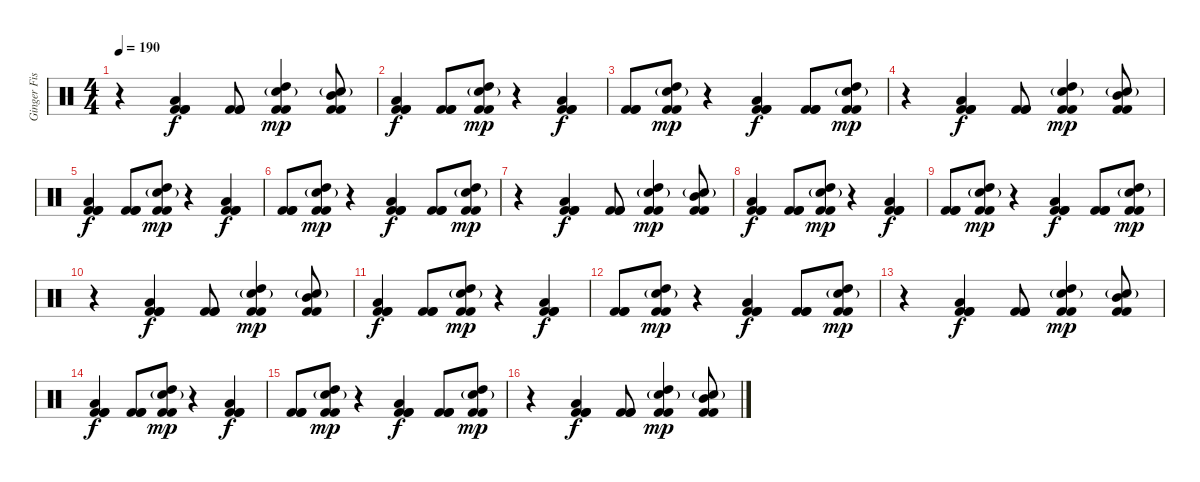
\track ("Ginger Fish" "Ginger Fis") {instrument percussion}
\staff {score}
\articulation defaults
\ts (4 4)
\tempo 190
\clef neutral
\ks c
r.4{dy mp} ("Low Tom (hit)" "Kick (hit) 2" "Kick (hit) 2" "Kick (hit) 2").4{dy f} ("Kick (hit) 2" "Kick (hit) 2" "Kick (hit) 2").8 ("High Tom (hit)" "Electric Snare (hit)"{g} "Kick (hit) 2" "Kick (hit) 2").4{dy mp} ("Mid Tom (hit)" "Electric Snare (hit)"{g} "Kick (hit) 2" "Kick (hit) 2").8 |
("Low Tom (hit)" "Kick (hit) 2" "Kick (hit) 2" "Kick (hit) 2").4{dy f} ("Kick (hit) 2" "Kick (hit) 2" "Kick (hit) 2").8 ("High Tom (hit)" "Electric Snare (hit)"{g} "Kick (hit) 2" "Kick (hit) 2").8{dy mp} r.4 ("Low Tom (hit)" "Kick (hit) 2" "Kick (hit) 2" "Kick (hit) 2").4{dy f} |
("Kick (hit) 2" "Kick (hit) 2" "Kick (hit) 2").8 ("High Tom (hit)" "Electric Snare (hit)"{g} "Kick (hit) 2" "Kick (hit) 2").8{dy mp} r.4 ("Low Tom (hit)" "Kick (hit) 2" "Kick (hit) 2" "Kick (hit) 2").4{dy f} ("Kick (hit) 2" "Kick (hit) 2" "Kick (hit) 2").8 ("High Tom (hit)" "Electric Snare (hit)"{g} "Kick (hit) 2" "Kick (hit) 2").8{dy mp} |
r.4 ("Low Tom (hit)" "Kick (hit) 2" "Kick (hit) 2" "Kick (hit) 2").4{dy f} ("Kick (hit) 2" "Kick (hit) 2" "Kick (hit) 2").8 ("High Tom (hit)" "Electric Snare (hit)"{g} "Kick (hit) 2" "Kick (hit) 2").4{dy mp} ("Mid Tom (hit)" "Electric Snare (hit)"{g} "Kick (hit) 2" "Kick (hit) 2").8 |
("Low Tom (hit)" "Kick (hit) 2" "Kick (hit) 2" "Kick (hit) 2").4{dy f} ("Kick (hit) 2" "Kick (hit) 2" "Kick (hit) 2").8 ("High Tom (hit)" "Electric Snare (hit)"{g} "Kick (hit) 2" "Kick (hit) 2").8{dy mp} r.4 ("Low Tom (hit)" "Kick (hit) 2" "Kick (hit) 2" "Kick (hit) 2").4{dy f} |
("Kick (hit) 2" "Kick (hit) 2" "Kick (hit) 2").8 ("High Tom (hit)" "Electric Snare (hit)"{g} "Kick (hit) 2" "Kick (hit) 2").8{dy mp} r.4 ("Low Tom (hit)" "Kick (hit) 2" "Kick (hit) 2" "Kick (hit) 2").4{dy f} ("Kick (hit) 2" "Kick (hit) 2" "Kick (hit) 2").8 ("High Tom (hit)" "Electric Snare (hit)"{g} "Kick (hit) 2" "Kick (hit) 2").8{dy mp} |
r.4 ("Low Tom (hit)" "Kick (hit) 2" "Kick (hit) 2" "Kick (hit) 2").4{dy f} ("Kick (hit) 2" "Kick (hit) 2" "Kick (hit) 2").8 ("High Tom (hit)" "Electric Snare (hit)"{g} "Kick (hit) 2" "Kick (hit) 2").4{dy mp} ("Mid Tom (hit)" "Electric Snare (hit)"{g} "Kick (hit) 2" "Kick (hit) 2").8 |
("Low Tom (hit)" "Kick (hit) 2" "Kick (hit) 2" "Kick (hit) 2").4{dy f} ("Kick (hit) 2" "Kick (hit) 2" "Kick (hit) 2").8 ("High Tom (hit)" "Electric Snare (hit)"{g} "Kick (hit) 2" "Kick (hit) 2").8{dy mp} r.4 ("Low Tom (hit)" "Kick (hit) 2" "Kick (hit) 2" "Kick (hit) 2").4{dy f} |
("Kick (hit) 2" "Kick (hit) 2" "Kick (hit) 2").8 ("High Tom (hit)" "Electric Snare (hit)"{g} "Kick (hit) 2" "Kick (hit) 2").8{dy mp} r.4 ("Low Tom (hit)" "Kick (hit) 2" "Kick (hit) 2" "Kick (hit) 2").4{dy f} ("Kick (hit) 2" "Kick (hit) 2" "Kick (hit) 2").8 ("High Tom (hit)" "Electric Snare (hit)"{g} "Kick (hit) 2" "Kick (hit) 2").8{dy mp} |
r.4 ("Low Tom (hit)" "Kick (hit) 2" "Kick (hit) 2" "Kick (hit) 2").4{dy f} ("Kick (hit) 2" "Kick (hit) 2" "Kick (hit) 2").8 ("High Tom (hit)" "Electric Snare (hit)"{g} "Kick (hit) 2" "Kick (hit) 2").4{dy mp} ("Mid Tom (hit)" "Electric Snare (hit)"{g} "Kick (hit) 2" "Kick (hit) 2").8 |
("Low Tom (hit)" "Kick (hit) 2" "Kick (hit) 2" "Kick (hit) 2").4{dy f} ("Kick (hit) 2" "Kick (hit) 2" "Kick (hit) 2").8 ("High Tom (hit)" "Electric Snare (hit)"{g} "Kick (hit) 2" "Kick (hit) 2").8{dy mp} r.4 ("Low Tom (hit)" "Kick (hit) 2" "Kick (hit) 2" "Kick (hit) 2").4{dy f} |
("Kick (hit) 2" "Kick (hit) 2" "Kick (hit) 2").8 ("High Tom (hit)" "Electric Snare (hit)"{g} "Kick (hit) 2" "Kick (hit) 2").8{dy mp} r.4 ("Low Tom (hit)" "Kick (hit) 2" "Kick (hit) 2" "Kick (hit) 2").4{dy f} ("Kick (hit) 2" "Kick (hit) 2" "Kick (hit) 2").8 ("High Tom (hit)" "Electric Snare (hit)"{g} "Kick (hit) 2" "Kick (hit) 2").8{dy mp} |
r.4 ("Low Tom (hit)" "Kick (hit) 2" "Kick (hit) 2" "Kick (hit) 2").4{dy f} ("Kick (hit) 2" "Kick (hit) 2" "Kick (hit) 2").8 ("High Tom (hit)" "Electric Snare (hit)"{g} "Kick (hit) 2" "Kick (hit) 2").4{dy mp} ("Mid Tom (hit)" "Electric Snare (hit)"{g} "Kick (hit) 2" "Kick (hit) 2").8 |
("Low Tom (hit)" "Kick (hit) 2" "Kick (hit) 2" "Kick (hit) 2").4{dy f} ("Kick (hit) 2" "Kick (hit) 2" "Kick (hit) 2").8 ("High Tom (hit)" "Electric Snare (hit)"{g} "Kick (hit) 2" "Kick (hit) 2").8{dy mp} r.4 ("Low Tom (hit)" "Kick (hit) 2" "Kick (hit) 2" "Kick (hit) 2").4{dy f} |
("Kick (hit) 2" "Kick (hit) 2" "Kick (hit) 2").8 ("High Tom (hit)" "Electric Snare (hit)"{g} "Kick (hit) 2" "Kick (hit) 2").8{dy mp} r.4 ("Low Tom (hit)" "Kick (hit) 2" "Kick (hit) 2" "Kick (hit) 2").4{dy f} ("Kick (hit) 2" "Kick (hit) 2" "Kick (hit) 2").8 ("High Tom (hit)" "Electric Snare (hit)"{g} "Kick (hit) 2" "Kick (hit) 2").8{dy mp} |
r.4 ("Low Tom (hit)" "Kick (hit) 2" "Kick (hit) 2" "Kick (hit) 2").4{dy f} ("Kick (hit) 2" "Kick (hit) 2" "Kick (hit) 2").8 ("High Tom (hit)" "Electric Snare (hit)"{g} "Kick (hit) 2" "Kick (hit) 2").4{dy mp} ("Mid Tom (hit)" "Electric Snare (hit)"{g} "Kick (hit) 2" "Kick (hit) 2").8
